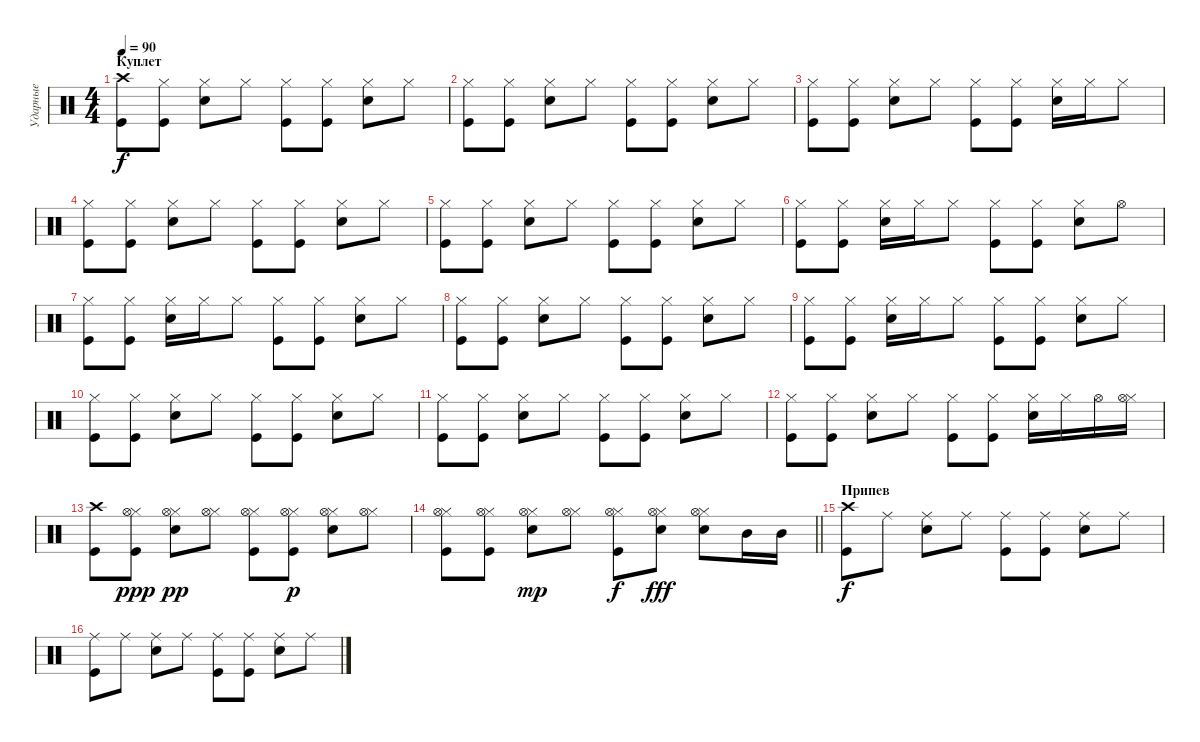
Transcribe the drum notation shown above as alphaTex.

\track ("Ударные" "Ударные") {instrument percussion}
\staff {score}
\articulation defaults
\ts (4 4)
\section ("" "Куплет")
\tempo 90
\clef neutral
\ks c
("Kick (hit)" "Crash high (hit)").8{dy f} ("Kick (hit)" "Hi-Hat (closed)").8 ("Hi-Hat (closed)" "Snare (hit) 2").8 "Hi-Hat (closed)".8 ("Hi-Hat (closed)" "Kick (hit)").8 ("Hi-Hat (closed)" "Kick (hit)").8 ("Hi-Hat (closed)" "Snare (hit) 2").8 "Hi-Hat (closed)".8 |
("Kick (hit)" "Hi-Hat (closed)").8 ("Hi-Hat (closed)" "Kick (hit)").8 ("Hi-Hat (closed)" "Snare (hit) 2").8 "Hi-Hat (closed)".8 ("Hi-Hat (closed)" "Kick (hit)").8 ("Hi-Hat (closed)" "Kick (hit)").8 ("Hi-Hat (closed)" "Snare (hit) 2").8 "Hi-Hat (closed)".8 |
("Hi-Hat (closed)" "Kick (hit)").8 ("Hi-Hat (closed)" "Kick (hit)").8 ("Hi-Hat (closed)" "Snare (hit) 2").8 "Hi-Hat (closed)".8 ("Hi-Hat (closed)" "Kick (hit)").8 ("Hi-Hat (closed)" "Kick (hit)").8 ("Snare (hit) 2" "Hi-Hat (closed)").16 "Hi-Hat (closed)".16 "Hi-Hat (closed)".8 |
("Hi-Hat (closed)" "Kick (hit)").8 ("Hi-Hat (closed)" "Kick (hit)").8 ("Hi-Hat (closed)" "Snare (hit) 2").8 "Hi-Hat (closed)".8 ("Hi-Hat (closed)" "Kick (hit)").8 ("Hi-Hat (closed)" "Kick (hit)").8 ("Hi-Hat (closed)" "Snare (hit) 2").8 "Hi-Hat (closed)".8 |
("Hi-Hat (closed)" "Kick (hit)").8 ("Hi-Hat (closed)" "Kick (hit)").8 ("Hi-Hat (closed)" "Snare (hit) 2").8 "Hi-Hat (closed)".8 ("Hi-Hat (closed)" "Kick (hit)").8 ("Hi-Hat (closed)" "Kick (hit)").8 ("Hi-Hat (closed)" "Snare (hit) 2").8 "Hi-Hat (closed)".8 |
("Hi-Hat (closed)" "Kick (hit)").8 ("Hi-Hat (closed)" "Kick (hit)").8 ("Hi-Hat (closed)" "Snare (hit) 2").16 "Hi-Hat (closed)".16 "Hi-Hat (closed)".8 ("Hi-Hat (closed)" "Kick (hit)").8 ("Hi-Hat (closed)" "Kick (hit)").8 ("Hi-Hat (closed)" "Snare (hit) 2").8 "Hi-Hat (open)".8 |
("Hi-Hat (closed)" "Kick (hit)").8 ("Hi-Hat (closed)" "Kick (hit)").8 ("Snare (hit) 2" "Hi-Hat (closed)").16 "Hi-Hat (closed)".16 "Hi-Hat (closed)".8 ("Hi-Hat (closed)" "Kick (hit)").8 ("Hi-Hat (closed)" "Kick (hit)").8 ("Hi-Hat (closed)" "Snare (hit) 2").8 "Hi-Hat (closed)".8 |
("Hi-Hat (closed)" "Kick (hit)").8 ("Hi-Hat (closed)" "Kick (hit)").8 ("Hi-Hat (closed)" "Snare (hit) 2").8 "Hi-Hat (closed)".8 ("Hi-Hat (closed)" "Kick (hit)").8 ("Hi-Hat (closed)" "Kick (hit)").8 ("Hi-Hat (closed)" "Snare (hit) 2").8 "Hi-Hat (closed)".8 |
("Hi-Hat (closed)" "Kick (hit)").8 ("Hi-Hat (closed)" "Kick (hit)").8 ("Hi-Hat (closed)" "Snare (hit) 2").16 "Hi-Hat (closed)".16 "Hi-Hat (closed)".8 ("Hi-Hat (closed)" "Kick (hit)").8 ("Hi-Hat (closed)" "Kick (hit)").8 ("Hi-Hat (closed)" "Snare (hit) 2").8 "Hi-Hat (closed)".8 |
("Hi-Hat (closed)" "Kick (hit)").8 ("Hi-Hat (closed)" "Kick (hit)").8 ("Hi-Hat (closed)" "Snare (hit) 2").8 "Hi-Hat (closed)".8 ("Hi-Hat (closed)" "Kick (hit)").8 ("Hi-Hat (closed)" "Kick (hit)").8 ("Hi-Hat (closed)" "Snare (hit) 2").8 "Hi-Hat (closed)".8 |
("Hi-Hat (closed)" "Kick (hit)").8 ("Hi-Hat (closed)" "Kick (hit)").8 ("Hi-Hat (closed)" "Snare (hit) 2").8 "Hi-Hat (closed)".8 ("Hi-Hat (closed)" "Kick (hit)").8 ("Hi-Hat (closed)" "Kick (hit)").8 ("Hi-Hat (closed)" "Snare (hit) 2").8 "Hi-Hat (closed)".8 |
("Hi-Hat (closed)" "Kick (hit)").8 ("Hi-Hat (closed)" "Kick (hit)").8 ("Hi-Hat (closed)" "Snare (hit) 2").8 "Hi-Hat (closed)".8 ("Hi-Hat (closed)" "Kick (hit)").8 ("Hi-Hat (closed)" "Kick (hit)").8 ("Hi-Hat (closed)" "Snare (hit) 2").16 "Hi-Hat (closed)".16 "Hi-Hat (open)".16 ("Hi-Hat (closed)" "Hi-Hat (open)").16 |
("Crash high (hit)" "Kick (hit)").8 ("Hi-Hat (closed)" "Kick (hit)" "Hi-Hat (open)").8{dy ppp} ("Hi-Hat (closed)" "Snare (hit) 2" "Hi-Hat (open)").8{dy pp} ("Hi-Hat (closed)" "Hi-Hat (open)").8 ("Hi-Hat (closed)" "Kick (hit)" "Hi-Hat (open)").8 ("Hi-Hat (closed)" "Kick (hit)" "Hi-Hat (open)").8{dy p} ("Hi-Hat (closed)" "Snare (hit) 2" "Hi-Hat (open)").8 ("Hi-Hat (closed)" "Hi-Hat (open)").8 |
\barLineRight lightlight
("Hi-Hat (closed)" "Hi-Hat (open)" "Kick (hit)").8 ("Hi-Hat (closed)" "Hi-Hat (open)" "Kick (hit)").8 ("Hi-Hat (closed)" "Hi-Hat (open)" "Snare (hit) 2").8{dy mp} ("Hi-Hat (closed)" "Hi-Hat (open)").8 ("Hi-Hat (closed)" "Hi-Hat (open)" "Kick (hit)").8{dy f} ("Hi-Hat (closed)" "Hi-Hat (open)" "Snare (hit) 2").8{dy fff} ("Hi-Hat (closed)" "Hi-Hat (open)" "Snare (hit) 2").8 "Mid Tom (hit)".16 "Mid Tom (hit)".16 |
\section ("" "Припев")
("Crash high (hit)" "Kick (hit)").8{dy f} "Ride (middle)".8 ("Ride (middle)" "Snare (hit) 2").8 "Ride (middle)".8 ("Ride (middle)" "Kick (hit)").8 ("Ride (middle)" "Kick (hit)").8 ("Ride (middle)" "Snare (hit) 2").8 "Ride (middle)".8 |
("Ride (middle)" "Kick (hit)").8 "Ride (middle)".8 ("Ride (middle)" "Snare (hit) 2").8 "Ride (middle)".8 ("Ride (middle)" "Kick (hit)").8 ("Ride (middle)" "Kick (hit)").8 ("Ride (middle)" "Snare (hit) 2").8 "Ride (middle)".8
